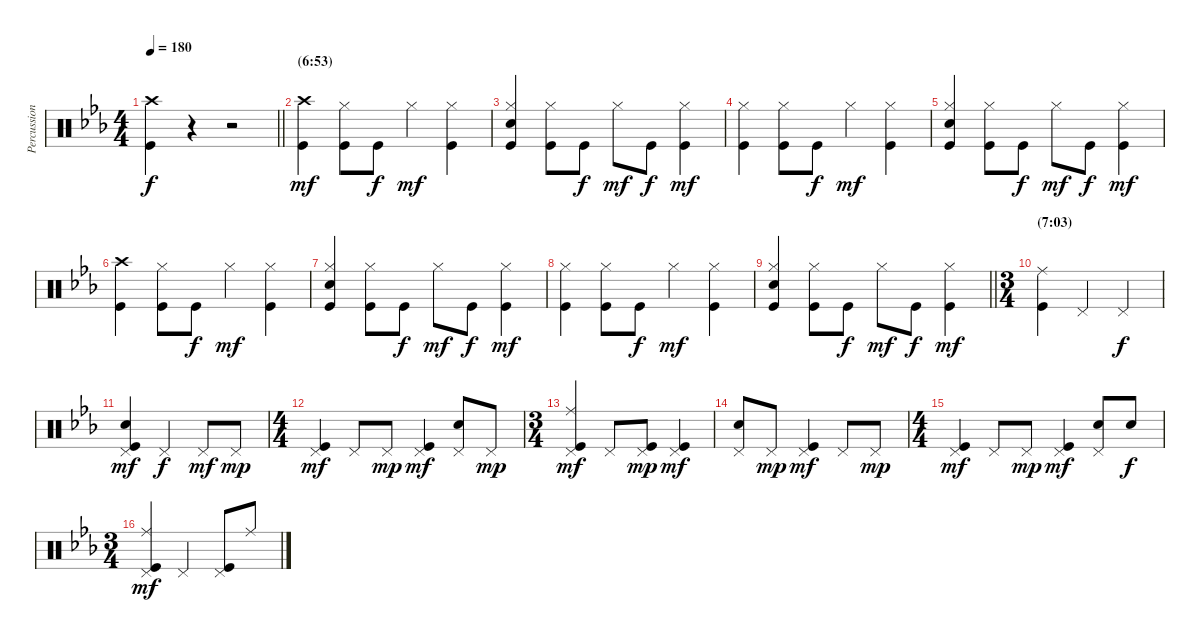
\track ("Percussion" "Percussion") {instrument percussion}
\staff {score}
\articulation defaults
\ts (4 4)
\tempo 180
\clef neutral
\barLineRight lightlight
\ks cminor
("Crash high (hit)" "Kick (hit)").4{dy f} r.4 r.2 |
\section ("" "(6:53)")
("Crash high (hit)" "Kick (hit)").4{dy mf} ("Hi-Hat (closed)" "Kick (hit)").8 "Kick (hit)".8{dy f} "Hi-Hat (closed)".4{dy mf} ("Hi-Hat (closed)" "Kick (hit)").4 |
("Hi-Hat (closed)" "Snare (hit) 2" "Kick (hit)").4 ("Hi-Hat (closed)" "Kick (hit)").8 "Kick (hit)".8{dy f} "Hi-Hat (closed)".8{dy mf} "Kick (hit)".8{dy f} ("Hi-Hat (closed)" "Kick (hit)").4{dy mf} |
("Hi-Hat (closed)" "Kick (hit)").4 ("Hi-Hat (closed)" "Kick (hit)").8 "Kick (hit)".8{dy f} "Hi-Hat (closed)".4{dy mf} ("Hi-Hat (closed)" "Kick (hit)").4 |
("Hi-Hat (closed)" "Snare (hit) 2" "Kick (hit)").4 ("Hi-Hat (closed)" "Kick (hit)").8 "Kick (hit)".8{dy f} "Hi-Hat (closed)".8{dy mf} "Kick (hit)".8{dy f} ("Hi-Hat (closed)" "Kick (hit)").4{dy mf} |
("Crash high (hit)" "Kick (hit)").4 ("Hi-Hat (closed)" "Kick (hit)").8 "Kick (hit)".8{dy f} "Hi-Hat (closed)".4{dy mf} ("Hi-Hat (closed)" "Kick (hit)").4 |
("Hi-Hat (closed)" "Snare (hit) 2" "Kick (hit)").4 ("Hi-Hat (closed)" "Kick (hit)").8 "Kick (hit)".8{dy f} "Hi-Hat (closed)".8{dy mf} "Kick (hit)".8{dy f} ("Hi-Hat (closed)" "Kick (hit)").4{dy mf} |
("Hi-Hat (closed)" "Kick (hit)").4 ("Hi-Hat (closed)" "Kick (hit)").8 "Kick (hit)".8{dy f} "Hi-Hat (closed)".4{dy mf} ("Hi-Hat (closed)" "Kick (hit)").4 |
\barLineRight lightlight
("Hi-Hat (closed)" "Snare (hit) 2" "Kick (hit)").4 ("Hi-Hat (closed)" "Kick (hit)").8 "Kick (hit)".8{dy f} "Hi-Hat (closed)".8{dy mf} "Kick (hit)".8{dy f} ("Hi-Hat (closed)" "Kick (hit)").4{dy mf} |
\ts (3 4)
\section ("" "(7:03)")
("Ride (middle)" "Kick (hit)").4 "Pedal Hi-Hat (hit)".4 "Pedal Hi-Hat (hit)".4{dy f} |
("Pedal Hi-Hat (hit)" "Snare (hit) 2" "Kick (hit)").4{dy mf} "Pedal Hi-Hat (hit)".4{dy f} "Pedal Hi-Hat (hit)".8{dy mf} "Pedal Hi-Hat (hit)".8{dy mp} |
\ts (4 4)
("Pedal Hi-Hat (hit)" "Kick (hit)").4{dy mf} "Pedal Hi-Hat (hit)".8 "Pedal Hi-Hat (hit)".8{dy mp} ("Pedal Hi-Hat (hit)" "Kick (hit)").4{dy mf} ("Pedal Hi-Hat (hit)" "Snare (hit) 2").8 "Pedal Hi-Hat (hit)".8{dy mp} |
\ts (3 4)
("Ride (middle)" "Pedal Hi-Hat (hit)" "Kick (hit)").4{dy mf} "Pedal Hi-Hat (hit)".8 ("Pedal Hi-Hat (hit)" "Kick (hit)").8{dy mp} ("Pedal Hi-Hat (hit)" "Kick (hit)").4{dy mf} |
("Pedal Hi-Hat (hit)" "Snare (hit) 2").8 "Pedal Hi-Hat (hit)".8{dy mp} ("Pedal Hi-Hat (hit)" "Kick (hit)").4{dy mf} "Pedal Hi-Hat (hit)".8 "Pedal Hi-Hat (hit)".8{dy mp} |
\ts (4 4)
("Pedal Hi-Hat (hit)" "Kick (hit)").4{dy mf} "Pedal Hi-Hat (hit)".8 "Pedal Hi-Hat (hit)".8{dy mp} ("Pedal Hi-Hat (hit)" "Kick (hit)").4{dy mf} ("Pedal Hi-Hat (hit)" "Snare (hit) 2").8 "Snare (hit) 2".8{dy f} |
\ts (3 4)
("Ride (middle)" "Pedal Hi-Hat (hit)" "Kick (hit)").4{dy mf} "Pedal Hi-Hat (hit)".4 ("Pedal Hi-Hat (hit)" "Kick (hit)").8 "Ride (middle)".8
